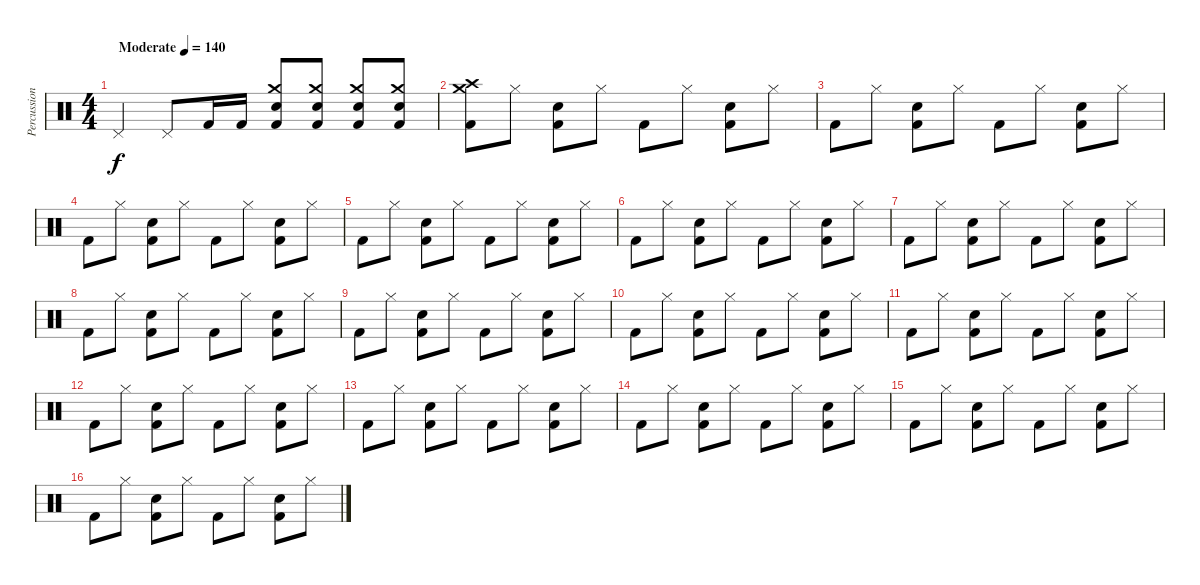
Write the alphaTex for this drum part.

\track ("Percussion" "Percussion") {instrument percussion}
\staff {score}
\articulation defaults
\ts (4 4)
\tempo (140 "Moderate")
\clef neutral
\ks c "Pedal Hi-Hat (hit)".4{dy f} "Pedal Hi-Hat (hit)".8 "Kick (hit) 2".16 "Kick (hit) 2".16
("Crash medium (hit)" "Electric Snare (hit)" "Kick (hit) 2").8 ("Crash medium (hit)" "Electric Snare (hit)" "Kick (hit) 2").8 ("Crash medium (hit)" "Electric Snare (hit)" "Kick (hit) 2").8 ("Crash medium (hit)" "Electric Snare (hit)" "Kick (hit) 2").8 |
("Crash high (hit)" "Crash medium (hit)" "Kick (hit) 2").8 "Hi-Hat (closed)".8 ("Electric Snare (hit)" "Kick (hit) 2").8 "Hi-Hat (closed)".8 "Kick (hit) 2".8 "Hi-Hat (closed)".8 ("Electric Snare (hit)" "Kick (hit) 2").8 "Hi-Hat (closed)".8 |
"Kick (hit) 2".8 "Hi-Hat (closed)".8 ("Electric Snare (hit)" "Kick (hit) 2").8 "Hi-Hat (closed)".8 "Kick (hit) 2".8 "Hi-Hat (closed)".8 ("Electric Snare (hit)" "Kick (hit) 2").8 "Hi-Hat (closed)".8 |
"Kick (hit) 2".8 "Hi-Hat (closed)".8 ("Electric Snare (hit)" "Kick (hit) 2").8 "Hi-Hat (closed)".8 "Kick (hit) 2".8 "Hi-Hat (closed)".8 ("Electric Snare (hit)" "Kick (hit) 2").8 "Hi-Hat (closed)".8 |
"Kick (hit) 2".8 "Hi-Hat (closed)".8 ("Electric Snare (hit)" "Kick (hit) 2").8 "Hi-Hat (closed)".8 "Kick (hit) 2".8 "Hi-Hat (closed)".8 ("Electric Snare (hit)" "Kick (hit) 2").8 "Hi-Hat (closed)".8 |
"Kick (hit) 2".8 "Hi-Hat (closed)".8 ("Electric Snare (hit)" "Kick (hit) 2").8 "Hi-Hat (closed)".8 "Kick (hit) 2".8 "Hi-Hat (closed)".8 ("Electric Snare (hit)" "Kick (hit) 2").8 "Hi-Hat (closed)".8 |
"Kick (hit) 2".8 "Hi-Hat (closed)".8 ("Electric Snare (hit)" "Kick (hit) 2").8 "Hi-Hat (closed)".8 "Kick (hit) 2".8 "Hi-Hat (closed)".8 ("Electric Snare (hit)" "Kick (hit) 2").8 "Hi-Hat (closed)".8 |
"Kick (hit) 2".8 "Hi-Hat (closed)".8 ("Electric Snare (hit)" "Kick (hit) 2").8 "Hi-Hat (closed)".8 "Kick (hit) 2".8 "Hi-Hat (closed)".8 ("Electric Snare (hit)" "Kick (hit) 2").8 "Hi-Hat (closed)".8 |
"Kick (hit) 2".8 "Hi-Hat (closed)".8 ("Electric Snare (hit)" "Kick (hit) 2").8 "Hi-Hat (closed)".8 "Kick (hit) 2".8 "Hi-Hat (closed)".8 ("Electric Snare (hit)" "Kick (hit) 2").8 "Hi-Hat (closed)".8 |
"Kick (hit) 2".8 "Hi-Hat (closed)".8 ("Electric Snare (hit)" "Kick (hit) 2").8 "Hi-Hat (closed)".8 "Kick (hit) 2".8 "Hi-Hat (closed)".8 ("Electric Snare (hit)" "Kick (hit) 2").8 "Hi-Hat (closed)".8 |
"Kick (hit) 2".8 "Hi-Hat (closed)".8 ("Electric Snare (hit)" "Kick (hit) 2").8 "Hi-Hat (closed)".8 "Kick (hit) 2".8 "Hi-Hat (closed)".8 ("Electric Snare (hit)" "Kick (hit) 2").8 "Hi-Hat (closed)".8 |
"Kick (hit) 2".8 "Hi-Hat (closed)".8 ("Electric Snare (hit)" "Kick (hit) 2").8 "Hi-Hat (closed)".8 "Kick (hit) 2".8 "Hi-Hat (closed)".8 ("Electric Snare (hit)" "Kick (hit) 2").8 "Hi-Hat (closed)".8 |
"Kick (hit) 2".8 "Hi-Hat (closed)".8 ("Electric Snare (hit)" "Kick (hit) 2").8 "Hi-Hat (closed)".8 "Kick (hit) 2".8 "Hi-Hat (closed)".8 ("Electric Snare (hit)" "Kick (hit) 2").8 "Hi-Hat (closed)".8 |
"Kick (hit) 2".8 "Hi-Hat (closed)".8 ("Electric Snare (hit)" "Kick (hit) 2").8 "Hi-Hat (closed)".8 "Kick (hit) 2".8 "Hi-Hat (closed)".8 ("Electric Snare (hit)" "Kick (hit) 2").8 "Hi-Hat (closed)".8 |
"Kick (hit) 2".8 "Hi-Hat (closed)".8 ("Electric Snare (hit)" "Kick (hit) 2").8 "Hi-Hat (closed)".8 "Kick (hit) 2".8 "Hi-Hat (closed)".8 ("Electric Snare (hit)" "Kick (hit) 2").8 "Hi-Hat (closed)".8 |
"Kick (hit) 2".8 "Hi-Hat (closed)".8 ("Electric Snare (hit)" "Kick (hit) 2").8 "Hi-Hat (closed)".8 "Kick (hit) 2".8 "Hi-Hat (closed)".8 ("Electric Snare (hit)" "Kick (hit) 2").8 "Hi-Hat (closed)".8
